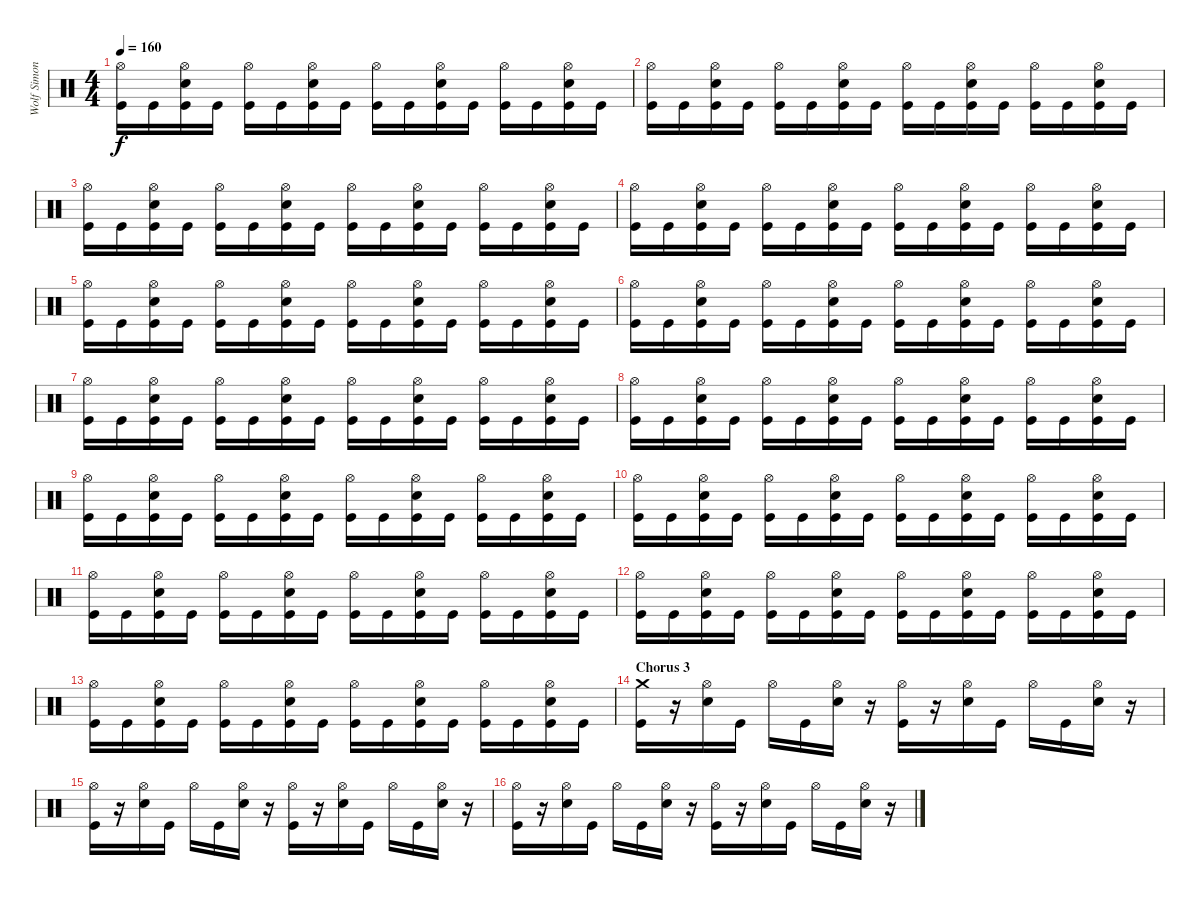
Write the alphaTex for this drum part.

\track ("Wolf Simons" "Wolf Simon") {instrument percussion}
\staff {score}
\articulation defaults
\ts (4 4)
\tempo 160
\clef neutral
\ks c
("Hi-Hat (open)" "Kick (hit)").16{dy f} "Kick (hit)".16 ("Hi-Hat (open)" "Electric Snare (hit)" "Kick (hit)").16 "Kick (hit)".16 ("Hi-Hat (open)" "Kick (hit)").16 "Kick (hit)".16 ("Hi-Hat (open)" "Electric Snare (hit)" "Kick (hit)").16 "Kick (hit)".16 ("Hi-Hat (open)" "Kick (hit)").16 "Kick (hit)".16 ("Hi-Hat (open)" "Electric Snare (hit)" "Kick (hit)").16 "Kick (hit)".16 ("Hi-Hat (open)" "Kick (hit)").16 "Kick (hit)".16 ("Hi-Hat (open)" "Electric Snare (hit)" "Kick (hit)").16 "Kick (hit)".16 |
("Hi-Hat (open)" "Kick (hit)").16 "Kick (hit)".16 ("Hi-Hat (open)" "Electric Snare (hit)" "Kick (hit)").16 "Kick (hit)".16 ("Hi-Hat (open)" "Kick (hit)").16 "Kick (hit)".16 ("Hi-Hat (open)" "Electric Snare (hit)" "Kick (hit)").16 "Kick (hit)".16 ("Hi-Hat (open)" "Kick (hit)").16 "Kick (hit)".16 ("Hi-Hat (open)" "Electric Snare (hit)" "Kick (hit)").16 "Kick (hit)".16 ("Hi-Hat (open)" "Kick (hit)").16 "Kick (hit)".16 ("Hi-Hat (open)" "Electric Snare (hit)" "Kick (hit)").16 "Kick (hit)".16 |
("Hi-Hat (open)" "Kick (hit)").16 "Kick (hit)".16 ("Hi-Hat (open)" "Electric Snare (hit)" "Kick (hit)").16 "Kick (hit)".16 ("Hi-Hat (open)" "Kick (hit)").16 "Kick (hit)".16 ("Hi-Hat (open)" "Electric Snare (hit)" "Kick (hit)").16 "Kick (hit)".16 ("Hi-Hat (open)" "Kick (hit)").16 "Kick (hit)".16 ("Hi-Hat (open)" "Electric Snare (hit)" "Kick (hit)").16 "Kick (hit)".16 ("Hi-Hat (open)" "Kick (hit)").16 "Kick (hit)".16 ("Hi-Hat (open)" "Electric Snare (hit)" "Kick (hit)").16 "Kick (hit)".16 |
("Hi-Hat (open)" "Kick (hit)").16 "Kick (hit)".16 ("Hi-Hat (open)" "Electric Snare (hit)" "Kick (hit)").16 "Kick (hit)".16 ("Hi-Hat (open)" "Kick (hit)").16 "Kick (hit)".16 ("Hi-Hat (open)" "Electric Snare (hit)" "Kick (hit)").16 "Kick (hit)".16 ("Hi-Hat (open)" "Kick (hit)").16 "Kick (hit)".16 ("Hi-Hat (open)" "Electric Snare (hit)" "Kick (hit)").16 "Kick (hit)".16 ("Hi-Hat (open)" "Kick (hit)").16 "Kick (hit)".16 ("Hi-Hat (open)" "Electric Snare (hit)" "Kick (hit)").16 "Kick (hit)".16 |
("Hi-Hat (open)" "Kick (hit)").16 "Kick (hit)".16 ("Hi-Hat (open)" "Electric Snare (hit)" "Kick (hit)").16 "Kick (hit)".16 ("Hi-Hat (open)" "Kick (hit)").16 "Kick (hit)".16 ("Hi-Hat (open)" "Electric Snare (hit)" "Kick (hit)").16 "Kick (hit)".16 ("Hi-Hat (open)" "Kick (hit)").16 "Kick (hit)".16 ("Hi-Hat (open)" "Electric Snare (hit)" "Kick (hit)").16 "Kick (hit)".16 ("Hi-Hat (open)" "Kick (hit)").16 "Kick (hit)".16 ("Hi-Hat (open)" "Electric Snare (hit)" "Kick (hit)").16 "Kick (hit)".16 |
("Hi-Hat (open)" "Kick (hit)").16 "Kick (hit)".16 ("Hi-Hat (open)" "Electric Snare (hit)" "Kick (hit)").16 "Kick (hit)".16 ("Hi-Hat (open)" "Kick (hit)").16 "Kick (hit)".16 ("Hi-Hat (open)" "Electric Snare (hit)" "Kick (hit)").16 "Kick (hit)".16 ("Hi-Hat (open)" "Kick (hit)").16 "Kick (hit)".16 ("Hi-Hat (open)" "Electric Snare (hit)" "Kick (hit)").16 "Kick (hit)".16 ("Hi-Hat (open)" "Kick (hit)").16 "Kick (hit)".16 ("Hi-Hat (open)" "Electric Snare (hit)" "Kick (hit)").16 "Kick (hit)".16 |
("Hi-Hat (open)" "Kick (hit)").16 "Kick (hit)".16 ("Hi-Hat (open)" "Electric Snare (hit)" "Kick (hit)").16 "Kick (hit)".16 ("Hi-Hat (open)" "Kick (hit)").16 "Kick (hit)".16 ("Hi-Hat (open)" "Electric Snare (hit)" "Kick (hit)").16 "Kick (hit)".16 ("Hi-Hat (open)" "Kick (hit)").16 "Kick (hit)".16 ("Hi-Hat (open)" "Electric Snare (hit)" "Kick (hit)").16 "Kick (hit)".16 ("Hi-Hat (open)" "Kick (hit)").16 "Kick (hit)".16 ("Hi-Hat (open)" "Electric Snare (hit)" "Kick (hit)").16 "Kick (hit)".16 |
("Hi-Hat (open)" "Kick (hit)").16 "Kick (hit)".16 ("Hi-Hat (open)" "Electric Snare (hit)" "Kick (hit)").16 "Kick (hit)".16 ("Hi-Hat (open)" "Kick (hit)").16 "Kick (hit)".16 ("Hi-Hat (open)" "Electric Snare (hit)" "Kick (hit)").16 "Kick (hit)".16 ("Hi-Hat (open)" "Kick (hit)").16 "Kick (hit)".16 ("Hi-Hat (open)" "Electric Snare (hit)" "Kick (hit)").16 "Kick (hit)".16 ("Hi-Hat (open)" "Kick (hit)").16 "Kick (hit)".16 ("Hi-Hat (open)" "Electric Snare (hit)" "Kick (hit)").16 "Kick (hit)".16 |
("Hi-Hat (open)" "Kick (hit)").16 "Kick (hit)".16 ("Hi-Hat (open)" "Electric Snare (hit)" "Kick (hit)").16 "Kick (hit)".16 ("Hi-Hat (open)" "Kick (hit)").16 "Kick (hit)".16 ("Hi-Hat (open)" "Electric Snare (hit)" "Kick (hit)").16 "Kick (hit)".16 ("Hi-Hat (open)" "Kick (hit)").16 "Kick (hit)".16 ("Hi-Hat (open)" "Electric Snare (hit)" "Kick (hit)").16 "Kick (hit)".16 ("Hi-Hat (open)" "Kick (hit)").16 "Kick (hit)".16 ("Hi-Hat (open)" "Electric Snare (hit)" "Kick (hit)").16 "Kick (hit)".16 |
("Hi-Hat (open)" "Kick (hit)").16 "Kick (hit)".16 ("Hi-Hat (open)" "Electric Snare (hit)" "Kick (hit)").16 "Kick (hit)".16 ("Hi-Hat (open)" "Kick (hit)").16 "Kick (hit)".16 ("Hi-Hat (open)" "Electric Snare (hit)" "Kick (hit)").16 "Kick (hit)".16 ("Hi-Hat (open)" "Kick (hit)").16 "Kick (hit)".16 ("Hi-Hat (open)" "Electric Snare (hit)" "Kick (hit)").16 "Kick (hit)".16 ("Hi-Hat (open)" "Kick (hit)").16 "Kick (hit)".16 ("Hi-Hat (open)" "Electric Snare (hit)" "Kick (hit)").16 "Kick (hit)".16 |
("Hi-Hat (open)" "Kick (hit)").16 "Kick (hit)".16 ("Hi-Hat (open)" "Electric Snare (hit)" "Kick (hit)").16 "Kick (hit)".16 ("Hi-Hat (open)" "Kick (hit)").16 "Kick (hit)".16 ("Hi-Hat (open)" "Electric Snare (hit)" "Kick (hit)").16 "Kick (hit)".16 ("Hi-Hat (open)" "Kick (hit)").16 "Kick (hit)".16 ("Hi-Hat (open)" "Electric Snare (hit)" "Kick (hit)").16 "Kick (hit)".16 ("Hi-Hat (open)" "Kick (hit)").16 "Kick (hit)".16 ("Hi-Hat (open)" "Electric Snare (hit)" "Kick (hit)").16 "Kick (hit)".16 |
("Hi-Hat (open)" "Kick (hit)").16 "Kick (hit)".16 ("Hi-Hat (open)" "Electric Snare (hit)" "Kick (hit)").16 "Kick (hit)".16 ("Hi-Hat (open)" "Kick (hit)").16 "Kick (hit)".16 ("Hi-Hat (open)" "Electric Snare (hit)" "Kick (hit)").16 "Kick (hit)".16 ("Hi-Hat (open)" "Kick (hit)").16 "Kick (hit)".16 ("Hi-Hat (open)" "Electric Snare (hit)" "Kick (hit)").16 "Kick (hit)".16 ("Hi-Hat (open)" "Kick (hit)").16 "Kick (hit)".16 ("Hi-Hat (open)" "Electric Snare (hit)" "Kick (hit)").16 "Kick (hit)".16 |
("Hi-Hat (open)" "Kick (hit)").16 "Kick (hit)".16 ("Hi-Hat (open)" "Electric Snare (hit)" "Kick (hit)").16 "Kick (hit)".16 ("Hi-Hat (open)" "Kick (hit)").16 "Kick (hit)".16 ("Hi-Hat (open)" "Electric Snare (hit)" "Kick (hit)").16 "Kick (hit)".16 ("Hi-Hat (open)" "Kick (hit)").16 "Kick (hit)".16 ("Hi-Hat (open)" "Electric Snare (hit)" "Kick (hit)").16 "Kick (hit)".16 ("Hi-Hat (open)" "Kick (hit)").16 "Kick (hit)".16 ("Hi-Hat (open)" "Electric Snare (hit)" "Kick (hit)").16 "Kick (hit)".16 |
\section ("" "Chorus 3")
("Crash medium (hit)" "Kick (hit)").16 r.16 ("Hi-Hat (open)" "Electric Snare (hit)").16 "Kick (hit)".16 "Hi-Hat (open)".16 "Kick (hit)".16 ("Hi-Hat (open)" "Electric Snare (hit)").16 r.16 ("Hi-Hat (open)" "Kick (hit)").16 r.16 ("Hi-Hat (open)" "Electric Snare (hit)").16 "Kick (hit)".16 "Hi-Hat (open)".16 "Kick (hit)".16 ("Hi-Hat (open)" "Electric Snare (hit)").16 r.16 |
("Hi-Hat (open)" "Kick (hit)").16 r.16 ("Hi-Hat (open)" "Electric Snare (hit)").16 "Kick (hit)".16 "Hi-Hat (open)".16 "Kick (hit)".16 ("Hi-Hat (open)" "Electric Snare (hit)").16 r.16 ("Hi-Hat (open)" "Kick (hit)").16 r.16 ("Hi-Hat (open)" "Electric Snare (hit)").16 "Kick (hit)".16 "Hi-Hat (open)".16 "Kick (hit)".16 ("Hi-Hat (open)" "Electric Snare (hit)").16 r.16 |
("Hi-Hat (open)" "Kick (hit)").16 r.16 ("Hi-Hat (open)" "Electric Snare (hit)").16 "Kick (hit)".16 "Hi-Hat (open)".16 "Kick (hit)".16 ("Hi-Hat (open)" "Electric Snare (hit)").16 r.16 ("Hi-Hat (open)" "Kick (hit)").16 r.16 ("Hi-Hat (open)" "Electric Snare (hit)").16 "Kick (hit)".16 "Hi-Hat (open)".16 "Kick (hit)".16 ("Hi-Hat (open)" "Electric Snare (hit)").16 r.16
